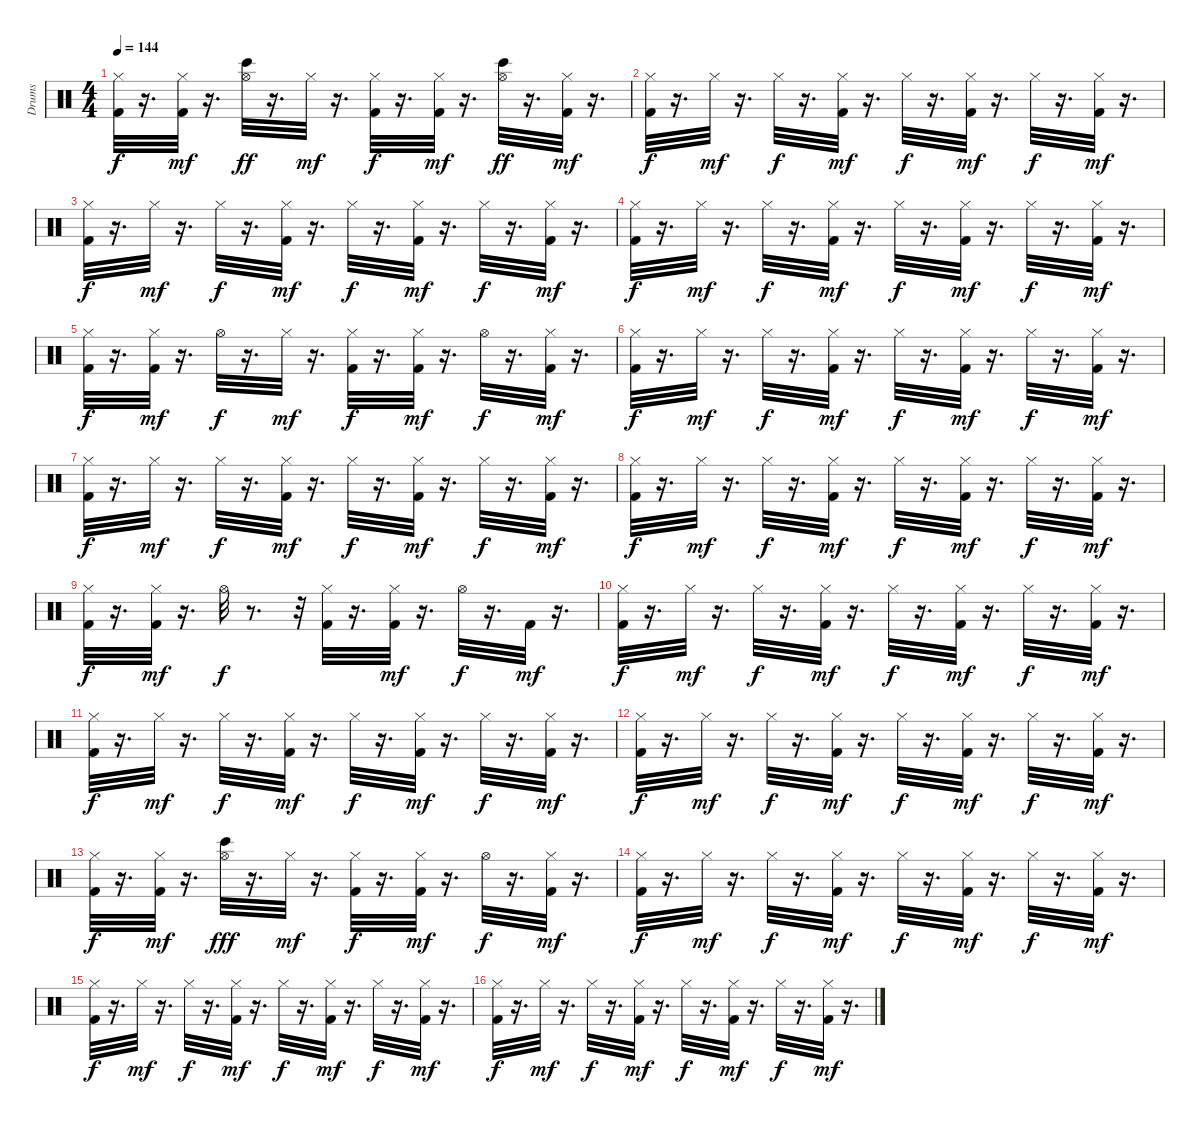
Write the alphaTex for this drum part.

\track ("Drums" "Drums") {instrument percussion}
\staff {score}
\articulation defaults
\ts (4 4)
\tempo 144
\clef neutral
\ks c
("Hi-Hat (closed)" "Kick (hit) 2").32{dy f} r.16{d} ("Hi-Hat (closed)" "Kick (hit) 2").32{dy mf} r.16{d} ("Hi-Hat (open)" "Bongo High (hit)").32{dy ff} r.16{d} "Hi-Hat (closed)".32{dy mf} r.16{d} ("Hi-Hat (closed)" "Kick (hit) 2").32{dy f} r.16{d} ("Hi-Hat (closed)" "Kick (hit) 2").32{dy mf} r.16{d} ("Bongo High (hit)" "Hi-Hat (open)").32{dy ff} r.16{d} ("Hi-Hat (closed)" "Kick (hit) 2").32{dy mf} r.16{d} |
("Hi-Hat (closed)" "Kick (hit) 2").32{dy f} r.16{d} "Hi-Hat (closed)".32{dy mf} r.16{d} "Hi-Hat (closed)".32{dy f} r.16{d} ("Hi-Hat (closed)" "Kick (hit) 2").32{dy mf} r.16{d} "Hi-Hat (closed)".32{dy f} r.16{d} ("Hi-Hat (closed)" "Kick (hit) 2").32{dy mf} r.16{d} "Hi-Hat (closed)".32{dy f} r.16{d} ("Hi-Hat (closed)" "Kick (hit) 2").32{dy mf} r.16{d} |
("Hi-Hat (closed)" "Kick (hit) 2").32{dy f} r.16{d} "Hi-Hat (closed)".32{dy mf} r.16{d} "Hi-Hat (closed)".32{dy f} r.16{d} ("Hi-Hat (closed)" "Kick (hit) 2").32{dy mf} r.16{d} "Hi-Hat (closed)".32{dy f} r.16{d} ("Hi-Hat (closed)" "Kick (hit) 2").32{dy mf} r.16{d} "Hi-Hat (closed)".32{dy f} r.16{d} ("Hi-Hat (closed)" "Kick (hit) 2").32{dy mf} r.16{d} |
("Hi-Hat (closed)" "Kick (hit) 2").32{dy f} r.16{d} "Hi-Hat (closed)".32{dy mf} r.16{d} "Hi-Hat (closed)".32{dy f} r.16{d} ("Hi-Hat (closed)" "Kick (hit) 2").32{dy mf} r.16{d} "Hi-Hat (closed)".32{dy f} r.16{d} ("Kick (hit) 2" "Hi-Hat (closed)").32{dy mf} r.16{d} "Hi-Hat (closed)".32{dy f} r.16{d} ("Kick (hit) 2" "Hi-Hat (closed)").32{dy mf} r.16{d} |
("Hi-Hat (closed)" "Kick (hit) 2").32{dy f} r.16{d} ("Hi-Hat (closed)" "Kick (hit) 2").32{dy mf} r.16{d} "Hi-Hat (open)".32{dy f} r.16{d} "Hi-Hat (closed)".32{dy mf} r.16{d} ("Hi-Hat (closed)" "Kick (hit) 2").32{dy f} r.16{d} ("Hi-Hat (closed)" "Kick (hit) 2").32{dy mf} r.16{d} "Hi-Hat (open)".32{dy f} r.16{d} ("Hi-Hat (closed)" "Kick (hit) 2").32{dy mf} r.16{d} |
("Hi-Hat (closed)" "Kick (hit) 2").32{dy f} r.16{d} "Hi-Hat (closed)".32{dy mf} r.16{d} "Hi-Hat (closed)".32{dy f} r.16{d} ("Hi-Hat (closed)" "Kick (hit) 2").32{dy mf} r.16{d} "Hi-Hat (closed)".32{dy f} r.16{d} ("Hi-Hat (closed)" "Kick (hit) 2").32{dy mf} r.16{d} "Hi-Hat (closed)".32{dy f} r.16{d} ("Hi-Hat (closed)" "Kick (hit) 2").32{dy mf} r.16{d} |
("Hi-Hat (closed)" "Kick (hit) 2").32{dy f} r.16{d} "Hi-Hat (closed)".32{dy mf} r.16{d} "Hi-Hat (closed)".32{dy f} r.16{d} ("Hi-Hat (closed)" "Kick (hit) 2").32{dy mf} r.16{d} "Hi-Hat (closed)".32{dy f} r.16{d} ("Hi-Hat (closed)" "Kick (hit) 2").32{dy mf} r.16{d} "Hi-Hat (closed)".32{dy f} r.16{d} ("Hi-Hat (closed)" "Kick (hit) 2").32{dy mf} r.16{d} |
("Hi-Hat (closed)" "Kick (hit) 2").32{dy f} r.16{d} "Hi-Hat (closed)".32{dy mf} r.16{d} "Hi-Hat (closed)".32{dy f} r.16{d} ("Hi-Hat (closed)" "Kick (hit) 2").32{dy mf} r.16{d} "Hi-Hat (closed)".32{dy f} r.16{d} ("Kick (hit) 2" "Hi-Hat (closed)").32{dy mf} r.16{d} "Hi-Hat (closed)".32{dy f} r.16{d} ("Kick (hit) 2" "Hi-Hat (closed)").32{dy mf} r.16{d} |
("Hi-Hat (closed)" "Kick (hit) 2").32{dy f} r.16{d} ("Hi-Hat (closed)" "Kick (hit) 2").32{dy mf} r.16{d} "Hi-Hat (open)".32{dy f} r.8{d} r.32 ("Hi-Hat (closed)" "Kick (hit) 2").32 r.16{d} ("Hi-Hat (closed)" "Kick (hit) 2").32{dy mf} r.16{d} "Hi-Hat (open)".32{dy f} r.16{d} "Kick (hit) 2".32{dy mf} r.16{d} |
("Hi-Hat (closed)" "Kick (hit) 2").32{dy f} r.16{d} "Hi-Hat (closed)".32{dy mf} r.16{d} "Hi-Hat (closed)".32{dy f} r.16{d} ("Hi-Hat (closed)" "Kick (hit) 2").32{dy mf} r.16{d} "Hi-Hat (closed)".32{dy f} r.16{d} ("Hi-Hat (closed)" "Kick (hit) 2").32{dy mf} r.16{d} "Hi-Hat (closed)".32{dy f} r.16{d} ("Hi-Hat (closed)" "Kick (hit) 2").32{dy mf} r.16{d} |
("Hi-Hat (closed)" "Kick (hit) 2").32{dy f} r.16{d} "Hi-Hat (closed)".32{dy mf} r.16{d} "Hi-Hat (closed)".32{dy f} r.16{d} ("Hi-Hat (closed)" "Kick (hit) 2").32{dy mf} r.16{d} "Hi-Hat (closed)".32{dy f} r.16{d} ("Hi-Hat (closed)" "Kick (hit) 2").32{dy mf} r.16{d} "Hi-Hat (closed)".32{dy f} r.16{d} ("Hi-Hat (closed)" "Kick (hit) 2").32{dy mf} r.16{d} |
("Hi-Hat (closed)" "Kick (hit) 2").32{dy f} r.16{d} "Hi-Hat (closed)".32{dy mf} r.16{d} "Hi-Hat (closed)".32{dy f} r.16{d} ("Hi-Hat (closed)" "Kick (hit) 2").32{dy mf} r.16{d} "Hi-Hat (closed)".32{dy f} r.16{d} ("Kick (hit) 2" "Hi-Hat (closed)").32{dy mf} r.16{d} "Hi-Hat (closed)".32{dy f} r.16{d} ("Kick (hit) 2" "Hi-Hat (closed)").32{dy mf} r.16{d} |
("Hi-Hat (closed)" "Kick (hit) 2").32{dy f} r.16{d} ("Hi-Hat (closed)" "Kick (hit) 2").32{dy mf} r.16{d} ("Bongo High (hit)" "Hi-Hat (open)").32{dy fff} r.16{d} "Hi-Hat (closed)".32{dy mf} r.16{d} ("Hi-Hat (closed)" "Kick (hit) 2").32{dy f} r.16{d} ("Hi-Hat (closed)" "Kick (hit) 2").32{dy mf} r.16{d} "Hi-Hat (open)".32{dy f} r.16{d} ("Hi-Hat (closed)" "Kick (hit) 2").32{dy mf} r.16{d} |
("Hi-Hat (closed)" "Kick (hit) 2").32{dy f} r.16{d} "Hi-Hat (closed)".32{dy mf} r.16{d} "Hi-Hat (closed)".32{dy f} r.16{d} ("Hi-Hat (closed)" "Kick (hit) 2").32{dy mf} r.16{d} "Hi-Hat (closed)".32{dy f} r.16{d} ("Hi-Hat (closed)" "Kick (hit) 2").32{dy mf} r.16{d} "Hi-Hat (closed)".32{dy f} r.16{d} ("Hi-Hat (closed)" "Kick (hit) 2").32{dy mf} r.16{d} |
("Hi-Hat (closed)" "Kick (hit) 2").32{dy f} r.16{d} "Hi-Hat (closed)".32{dy mf} r.16{d} "Hi-Hat (closed)".32{dy f} r.16{d} ("Hi-Hat (closed)" "Kick (hit) 2").32{dy mf} r.16{d} "Hi-Hat (closed)".32{dy f} r.16{d} ("Hi-Hat (closed)" "Kick (hit) 2").32{dy mf} r.16{d} "Hi-Hat (closed)".32{dy f} r.16{d} ("Hi-Hat (closed)" "Kick (hit) 2").32{dy mf} r.16{d} |
("Hi-Hat (closed)" "Kick (hit) 2").32{dy f} r.16{d} "Hi-Hat (closed)".32{dy mf} r.16{d} "Hi-Hat (closed)".32{dy f} r.16{d} ("Hi-Hat (closed)" "Kick (hit) 2").32{dy mf} r.16{d} "Hi-Hat (closed)".32{dy f} r.16{d} ("Kick (hit) 2" "Hi-Hat (closed)").32{dy mf} r.16{d} "Hi-Hat (closed)".32{dy f} r.16{d} ("Kick (hit) 2" "Hi-Hat (closed)").32{dy mf} r.16{d}
